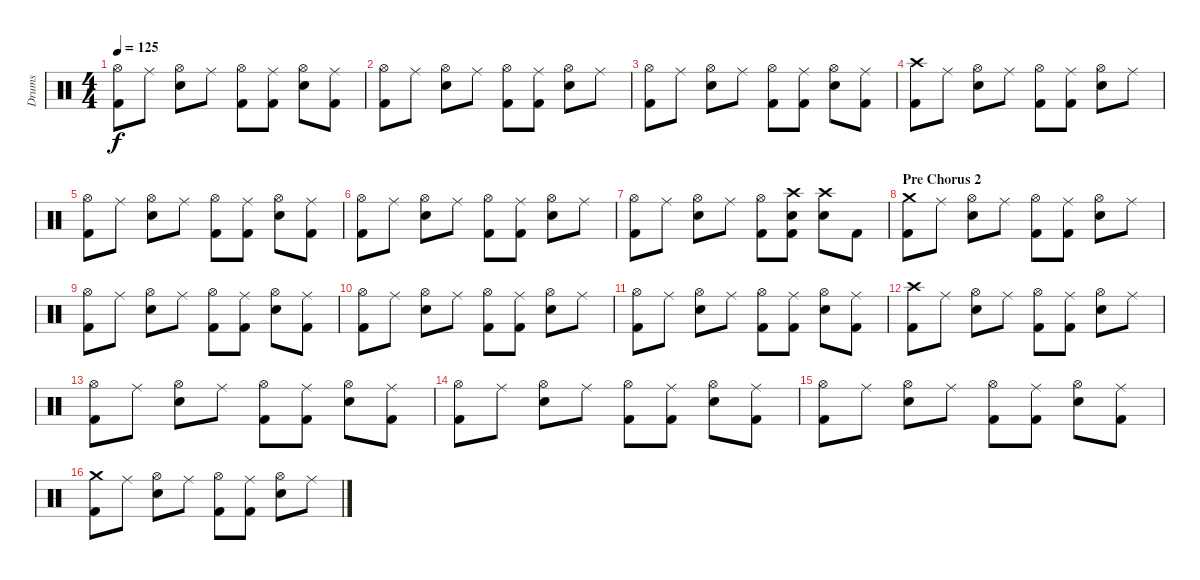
\track ("Drums" "Drums") {instrument percussion}
\staff {score}
\articulation defaults
\ts (4 4)
\tempo 125
\clef neutral
\ks c
("Hi-Hat (open)" "Kick (hit) 2").8{dy f} "Ride (middle)".8 ("Hi-Hat (open)" "Electric Snare (hit)").8 "Ride (middle)".8 ("Hi-Hat (open)" "Kick (hit) 2").8 ("Ride (middle)" "Kick (hit) 2").8 ("Hi-Hat (open)" "Electric Snare (hit)").8 ("Ride (middle)" "Kick (hit) 2").8 |
("Hi-Hat (open)" "Kick (hit) 2").8 "Ride (middle)".8 ("Hi-Hat (open)" "Electric Snare (hit)").8 "Ride (middle)".8 ("Hi-Hat (open)" "Kick (hit) 2").8 ("Ride (middle)" "Kick (hit) 2").8 ("Hi-Hat (open)" "Electric Snare (hit)").8 "Ride (middle)".8 |
("Hi-Hat (open)" "Kick (hit) 2").8 "Ride (middle)".8 ("Hi-Hat (open)" "Electric Snare (hit)").8 "Ride (middle)".8 ("Hi-Hat (open)" "Kick (hit) 2").8 ("Ride (middle)" "Kick (hit) 2").8 ("Hi-Hat (open)" "Electric Snare (hit)").8 ("Ride (middle)" "Kick (hit) 2").8 |
("Crash high (hit)" "Kick (hit) 2").8 "Ride (middle)".8 ("Hi-Hat (open)" "Electric Snare (hit)").8 "Ride (middle)".8 ("Hi-Hat (open)" "Kick (hit) 2").8 ("Ride (middle)" "Kick (hit) 2").8 ("Hi-Hat (open)" "Electric Snare (hit)").8 "Ride (middle)".8 |
("Hi-Hat (open)" "Kick (hit) 2").8 "Ride (middle)".8 ("Hi-Hat (open)" "Electric Snare (hit)").8 "Ride (middle)".8 ("Hi-Hat (open)" "Kick (hit) 2").8 ("Ride (middle)" "Kick (hit) 2").8 ("Hi-Hat (open)" "Electric Snare (hit)").8 ("Ride (middle)" "Kick (hit) 2").8 |
("Hi-Hat (open)" "Kick (hit) 2").8 "Ride (middle)".8 ("Hi-Hat (open)" "Electric Snare (hit)").8 "Ride (middle)".8 ("Hi-Hat (open)" "Kick (hit) 2").8 ("Ride (middle)" "Kick (hit) 2").8 ("Hi-Hat (open)" "Electric Snare (hit)").8 "Ride (middle)".8 |
("Hi-Hat (open)" "Kick (hit) 2").8 "Ride (middle)".8 ("Hi-Hat (open)" "Electric Snare (hit)").8 "Ride (middle)".8 ("Hi-Hat (open)" "Kick (hit) 2").8 ("Crash high (hit)" "Electric Snare (hit)" "Kick (hit) 2").8 ("Crash high (hit)" "Electric Snare (hit)").8 "Kick (hit) 2".8 |
\section ("" "Pre Chorus 2")
("Crash medium (hit)" "Kick (hit) 2").8 "Ride (middle)".8 ("Hi-Hat (open)" "Electric Snare (hit)").8 "Ride (middle)".8 ("Hi-Hat (open)" "Kick (hit) 2").8 ("Ride (middle)" "Kick (hit) 2").8 ("Hi-Hat (open)" "Electric Snare (hit)").8 "Ride (middle)".8 |
("Hi-Hat (open)" "Kick (hit) 2").8 "Ride (middle)".8 ("Hi-Hat (open)" "Electric Snare (hit)").8 "Ride (middle)".8 ("Hi-Hat (open)" "Kick (hit) 2").8 ("Ride (middle)" "Kick (hit) 2").8 ("Hi-Hat (open)" "Electric Snare (hit)").8 ("Ride (middle)" "Kick (hit) 2").8 |
("Hi-Hat (open)" "Kick (hit) 2").8 "Ride (middle)".8 ("Hi-Hat (open)" "Electric Snare (hit)").8 "Ride (middle)".8 ("Hi-Hat (open)" "Kick (hit) 2").8 ("Ride (middle)" "Kick (hit) 2").8 ("Hi-Hat (open)" "Electric Snare (hit)").8 "Ride (middle)".8 |
("Hi-Hat (open)" "Kick (hit) 2").8 "Ride (middle)".8 ("Hi-Hat (open)" "Electric Snare (hit)").8 "Ride (middle)".8 ("Hi-Hat (open)" "Kick (hit) 2").8 ("Ride (middle)" "Kick (hit) 2").8 ("Hi-Hat (open)" "Electric Snare (hit)").8 ("Ride (middle)" "Kick (hit) 2").8 |
("Crash high (hit)" "Kick (hit) 2").8 "Ride (middle)".8 ("Hi-Hat (open)" "Electric Snare (hit)").8 "Ride (middle)".8 ("Hi-Hat (open)" "Kick (hit) 2").8 ("Ride (middle)" "Kick (hit) 2").8 ("Hi-Hat (open)" "Electric Snare (hit)").8 "Ride (middle)".8 |
("Hi-Hat (open)" "Kick (hit) 2").8 "Ride (middle)".8 ("Hi-Hat (open)" "Electric Snare (hit)").8 "Ride (middle)".8 ("Hi-Hat (open)" "Kick (hit) 2").8 ("Ride (middle)" "Kick (hit) 2").8 ("Hi-Hat (open)" "Electric Snare (hit)").8 ("Ride (middle)" "Kick (hit) 2").8 |
("Hi-Hat (open)" "Kick (hit) 2").8 "Ride (middle)".8 ("Hi-Hat (open)" "Electric Snare (hit)").8 "Ride (middle)".8 ("Hi-Hat (open)" "Kick (hit) 2").8 ("Ride (middle)" "Kick (hit) 2").8 ("Hi-Hat (open)" "Electric Snare (hit)").8 ("Ride (middle)" "Kick (hit) 2").8 |
("Hi-Hat (open)" "Kick (hit) 2").8 "Ride (middle)".8 ("Hi-Hat (open)" "Electric Snare (hit)").8 "Ride (middle)".8 ("Hi-Hat (open)" "Kick (hit) 2").8 ("Ride (middle)" "Kick (hit) 2").8 ("Hi-Hat (open)" "Electric Snare (hit)").8 ("Ride (middle)" "Kick (hit) 2").8 |
("Crash medium (hit)" "Kick (hit) 2").8 "Ride (middle)".8 ("Hi-Hat (open)" "Electric Snare (hit)").8 "Ride (middle)".8 ("Hi-Hat (open)" "Kick (hit) 2").8 ("Ride (middle)" "Kick (hit) 2").8 ("Hi-Hat (open)" "Electric Snare (hit)").8 "Ride (middle)".8
